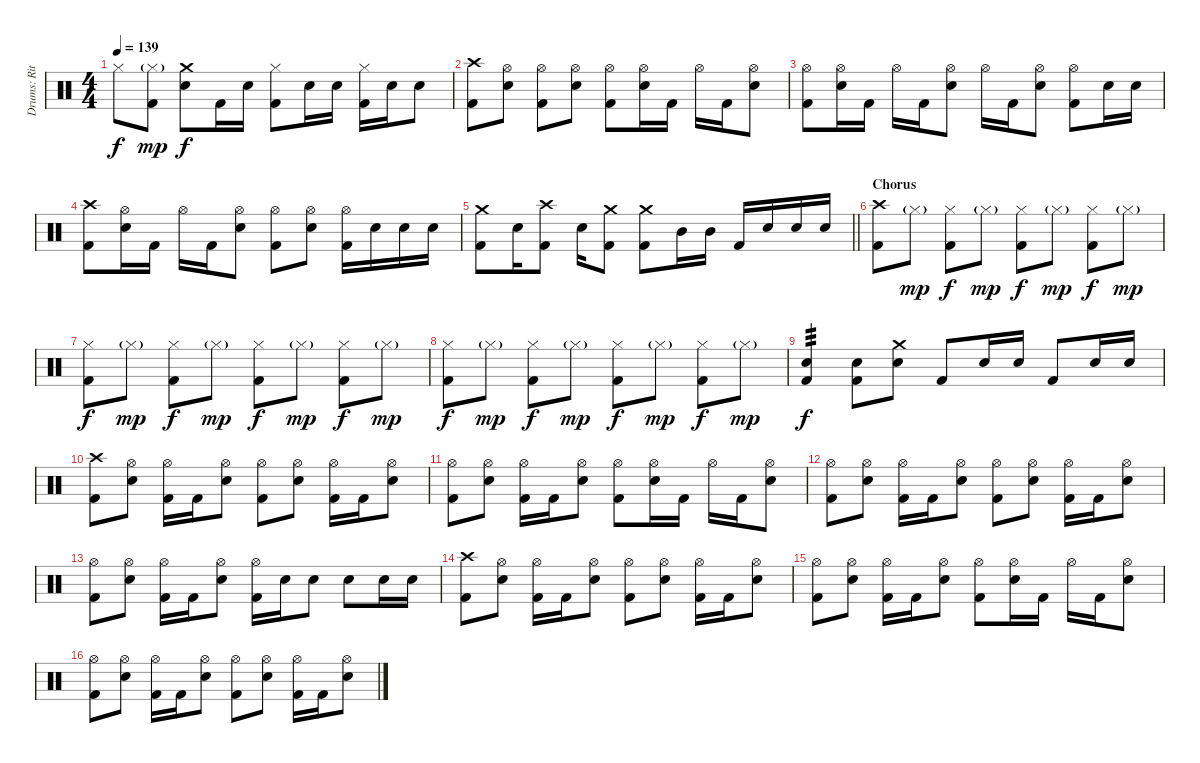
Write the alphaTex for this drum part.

\track ("Drums: Ritsu Tainaka" "Drums: Rit") {instrument percussion}
\staff {score}
\articulation defaults
\ts (4 4)
\tempo 139
\clef neutral
\ks c "Hi-Hat (closed)".8{dy f}
("Hi-Hat (closed)"{g} "Kick (hit) 2").8{dy mp} ("Crash medium (hit)" "Electric Snare (hit)").8{dy f} "Kick (hit) 2".16 "Electric Snare (hit)".16 ("Hi-Hat (closed)" "Kick (hit) 2").8 "Electric Snare (hit)".16 "Electric Snare (hit)".16 ("Hi-Hat (closed)" "Kick (hit) 2").16 "Electric Snare (hit)".16 "Electric Snare (hit)".8 |
("Crash high (hit)" "Kick (hit) 2").8 ("Hi-Hat (open)" "Electric Snare (hit)").8 ("Hi-Hat (open)" "Kick (hit) 2").8 ("Hi-Hat (open)" "Electric Snare (hit)").8 ("Hi-Hat (open)" "Kick (hit) 2").8 ("Hi-Hat (open)" "Electric Snare (hit)").16 "Kick (hit) 2".16 "Hi-Hat (open)".16 "Kick (hit) 2".16 ("Hi-Hat (open)" "Electric Snare (hit)").8 |
("Hi-Hat (open)" "Kick (hit) 2").8 ("Hi-Hat (open)" "Electric Snare (hit)").16 "Kick (hit) 2".16 "Hi-Hat (open)".16 "Kick (hit) 2".16 ("Hi-Hat (open)" "Electric Snare (hit)").8 "Hi-Hat (open)".16 "Kick (hit) 2".16 ("Hi-Hat (open)" "Electric Snare (hit)").8 ("Hi-Hat (open)" "Kick (hit) 2").8 "Electric Snare (hit)".16 "Electric Snare (hit)".16 |
("Crash high (hit)" "Kick (hit) 2").8 ("Hi-Hat (open)" "Electric Snare (hit)").16 "Kick (hit) 2".16 "Hi-Hat (open)".16 "Kick (hit) 2".16 ("Hi-Hat (open)" "Electric Snare (hit)").8 ("Hi-Hat (open)" "Kick (hit) 2").8 ("Hi-Hat (open)" "Electric Snare (hit)").8 ("Hi-Hat (open)" "Kick (hit) 2").16 "Electric Snare (hit)".16 "Electric Snare (hit)".16 "Electric Snare (hit)".16 |
\barLineRight lightlight
("Crash medium (hit)" "Kick (hit) 2").8 "Electric Snare (hit)".16 ("Crash high (hit)" "Kick (hit) 2").8 "Electric Snare (hit)".16 ("Crash medium (hit)" "Kick (hit) 2").8 ("Crash medium (hit)" "Kick (hit) 2").8 "Mid Tom (hit)".16 "Mid Tom (hit)".16 "Kick (hit) 2".16 "Electric Snare (hit)".16 "Electric Snare (hit)".16 "Electric Snare (hit)".16 |
\section ("" "Chorus")
("Crash high (hit)" "Kick (hit) 2").8 "Hi-Hat (closed)"{g}.8{dy mp} ("Hi-Hat (closed)" "Kick (hit) 2").8{dy f} "Hi-Hat (closed)"{g}.8{dy mp} ("Hi-Hat (closed)" "Kick (hit) 2").8{dy f} "Hi-Hat (closed)"{g}.8{dy mp} ("Hi-Hat (closed)" "Kick (hit) 2").8{dy f} "Hi-Hat (closed)"{g}.8{dy mp} |
("Hi-Hat (closed)" "Kick (hit) 2").8{dy f} "Hi-Hat (closed)"{g}.8{dy mp} ("Hi-Hat (closed)" "Kick (hit) 2").8{dy f} "Hi-Hat (closed)"{g}.8{dy mp} ("Hi-Hat (closed)" "Kick (hit) 2").8{dy f} "Hi-Hat (closed)"{g}.8{dy mp} ("Hi-Hat (closed)" "Kick (hit) 2").8{dy f} "Hi-Hat (closed)"{g}.8{dy mp} |
("Hi-Hat (closed)" "Kick (hit) 2").8{dy f} "Hi-Hat (closed)"{g}.8{dy mp} ("Hi-Hat (closed)" "Kick (hit) 2").8{dy f} "Hi-Hat (closed)"{g}.8{dy mp} ("Hi-Hat (closed)" "Kick (hit) 2").8{dy f} "Hi-Hat (closed)"{g}.8{dy mp} ("Hi-Hat (closed)" "Kick (hit) 2").8{dy f} "Hi-Hat (closed)"{g}.8{dy mp} |
("Electric Snare (hit)" "Kick (hit) 2").4{tp 3 dy f} ("Electric Snare (hit)" "Kick (hit) 2").8 ("Crash medium (hit)" "Electric Snare (hit)").8 "Kick (hit) 2".8 "Electric Snare (hit)".16 "Electric Snare (hit)".16 "Kick (hit) 2".8 "Electric Snare (hit)".16 "Electric Snare (hit)".16 |
("Crash high (hit)" "Kick (hit) 2").8 ("Hi-Hat (open)" "Electric Snare (hit)").8 ("Hi-Hat (open)" "Kick (hit) 2").16 "Kick (hit) 2".16 ("Hi-Hat (open)" "Electric Snare (hit)").8 ("Hi-Hat (open)" "Kick (hit) 2").8 ("Hi-Hat (open)" "Electric Snare (hit)").8 ("Hi-Hat (open)" "Kick (hit) 2").16 "Kick (hit) 2".16 ("Hi-Hat (open)" "Electric Snare (hit)").8 |
("Hi-Hat (open)" "Kick (hit) 2").8 ("Hi-Hat (open)" "Electric Snare (hit)").8 ("Hi-Hat (open)" "Kick (hit) 2").16 "Kick (hit) 2".16 ("Hi-Hat (open)" "Electric Snare (hit)").8 ("Hi-Hat (open)" "Kick (hit) 2").8 ("Hi-Hat (open)" "Electric Snare (hit)").16 "Kick (hit) 2".16 "Hi-Hat (open)".16 "Kick (hit) 2".16 ("Hi-Hat (open)" "Electric Snare (hit)").8 |
("Hi-Hat (open)" "Kick (hit) 2").8 ("Hi-Hat (open)" "Electric Snare (hit)").8 ("Hi-Hat (open)" "Kick (hit) 2").16 "Kick (hit) 2".16 ("Hi-Hat (open)" "Electric Snare (hit)").8 ("Hi-Hat (open)" "Kick (hit) 2").8 ("Hi-Hat (open)" "Electric Snare (hit)").8 ("Hi-Hat (open)" "Kick (hit) 2").16 "Kick (hit) 2".16 ("Hi-Hat (open)" "Electric Snare (hit)").8 |
("Hi-Hat (open)" "Kick (hit) 2").8 ("Hi-Hat (open)" "Electric Snare (hit)").8 ("Hi-Hat (open)" "Kick (hit) 2").16 "Kick (hit) 2".16 ("Hi-Hat (open)" "Electric Snare (hit)").8 ("Hi-Hat (open)" "Kick (hit) 2").16 "Electric Snare (hit)".16 "Electric Snare (hit)".8 "Electric Snare (hit)".8 "Electric Snare (hit)".16 "Electric Snare (hit)".16 |
("Crash high (hit)" "Kick (hit) 2").8 ("Hi-Hat (open)" "Electric Snare (hit)").8 ("Hi-Hat (open)" "Kick (hit) 2").16 "Kick (hit) 2".16 ("Hi-Hat (open)" "Electric Snare (hit)").8 ("Hi-Hat (open)" "Kick (hit) 2").8 ("Hi-Hat (open)" "Electric Snare (hit)").8 ("Hi-Hat (open)" "Kick (hit) 2").16 "Kick (hit) 2".16 ("Hi-Hat (open)" "Electric Snare (hit)").8 |
("Hi-Hat (open)" "Kick (hit) 2").8 ("Hi-Hat (open)" "Electric Snare (hit)").8 ("Hi-Hat (open)" "Kick (hit) 2").16 "Kick (hit) 2".16 ("Hi-Hat (open)" "Electric Snare (hit)").8 ("Hi-Hat (open)" "Kick (hit) 2").8 ("Hi-Hat (open)" "Electric Snare (hit)").16 "Kick (hit) 2".16 "Hi-Hat (open)".16 "Kick (hit) 2".16 ("Hi-Hat (open)" "Electric Snare (hit)").8 |
("Hi-Hat (open)" "Kick (hit) 2").8 ("Hi-Hat (open)" "Electric Snare (hit)").8 ("Hi-Hat (open)" "Kick (hit) 2").16 "Kick (hit) 2".16 ("Hi-Hat (open)" "Electric Snare (hit)").8 ("Hi-Hat (open)" "Kick (hit) 2").8 ("Hi-Hat (open)" "Electric Snare (hit)").8 ("Hi-Hat (open)" "Kick (hit) 2").16 "Kick (hit) 2".16 ("Hi-Hat (open)" "Electric Snare (hit)").8
